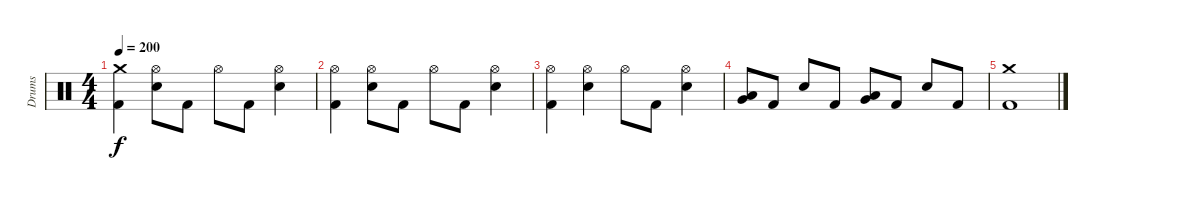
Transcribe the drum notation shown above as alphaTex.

\track ("Drums" "Drums") {instrument percussion}
\staff {score}
\articulation defaults
\ts (4 4)
\tempo 200
\clef neutral
\ks c
("Crash medium (hit)" "Kick (hit) 2").4{dy f} ("Hi-Hat (open)" "Electric Snare (hit)").8 "Kick (hit) 2".8 "Hi-Hat (open)".8 "Kick (hit) 2".8 ("Hi-Hat (open)" "Electric Snare (hit)").4 |
("Hi-Hat (open)" "Kick (hit) 2").4 ("Hi-Hat (open)" "Electric Snare (hit)").8 "Kick (hit) 2".8 "Hi-Hat (open)".8 "Kick (hit) 2".8 ("Hi-Hat (open)" "Electric Snare (hit)").4 |
("Hi-Hat (open)" "Kick (hit) 2").4 ("Hi-Hat (open)" "Electric Snare (hit)").4 "Hi-Hat (open)".8 "Kick (hit) 2".8 ("Hi-Hat (open)" "Electric Snare (hit)").4 |
("Very Low Tom (hit)" "Low Tom (hit)").8 "Kick (hit) 2".8 "Electric Snare (hit)".8 "Kick (hit) 2".8 ("Very Low Tom (hit)" "Low Tom (hit)").8 "Kick (hit) 2".8 "Electric Snare (hit)".8 "Kick (hit) 2".8 |
("Crash medium (hit)" "Kick (hit) 2").1
